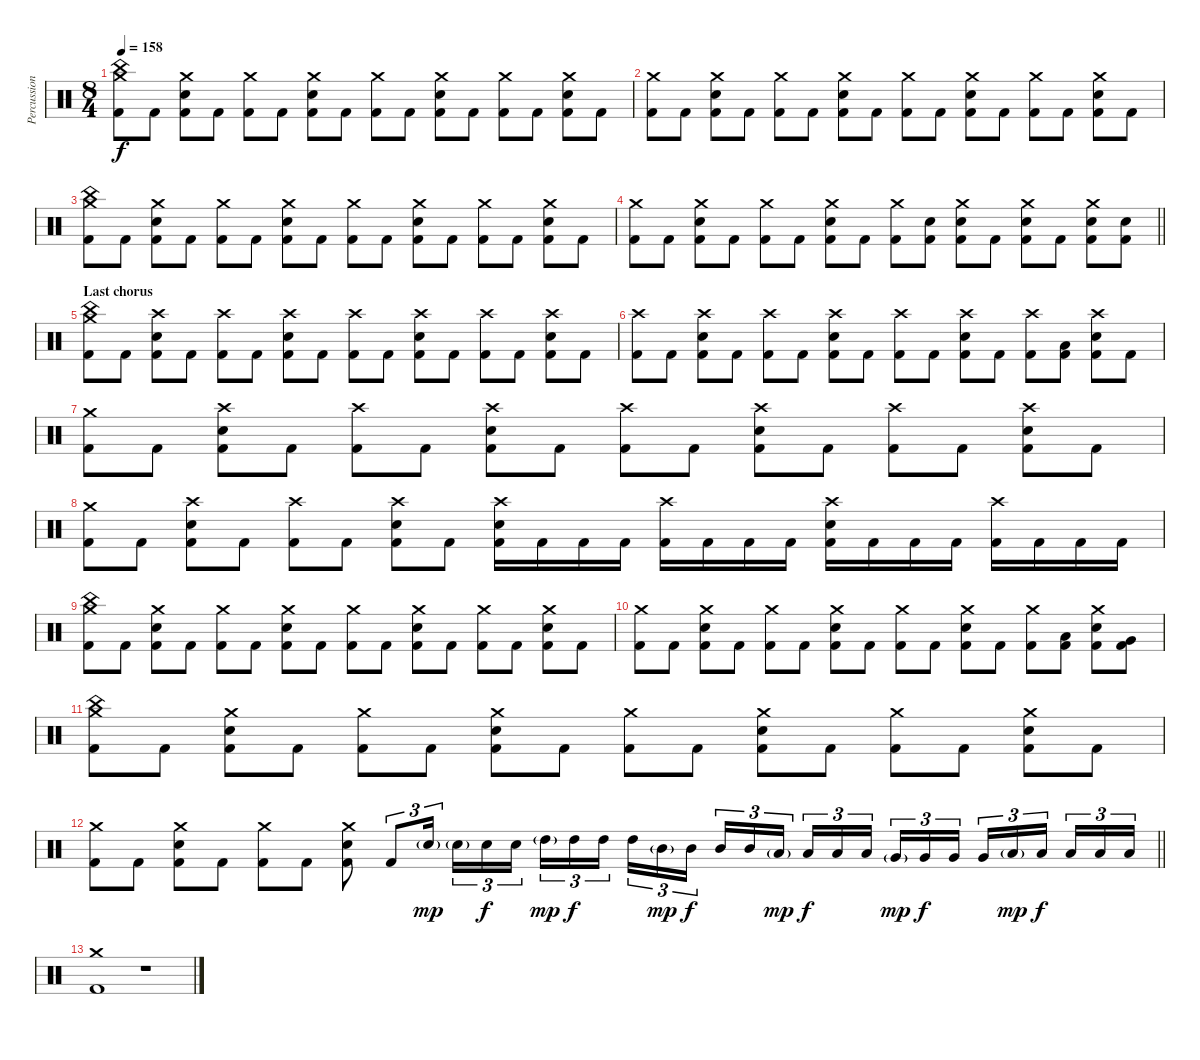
\track ("Percussion" "Percussion") {instrument percussion}
\staff {score}
\articulation defaults
\ts (8 4)
\tempo 158
\clef neutral
\ks c
("Crash medium (hit)" "China (hit)" "Kick (hit) 2").8{dy f} "Kick (hit) 2".8 ("Crash medium (hit)" "Electric Snare (hit)" "Kick (hit) 2").8 "Kick (hit) 2".8 ("Crash medium (hit)" "Kick (hit) 2").8 "Kick (hit) 2".8 ("Crash medium (hit)" "Electric Snare (hit)" "Kick (hit) 2").8 "Kick (hit) 2".8 ("Crash medium (hit)" "Kick (hit) 2").8 "Kick (hit) 2".8 ("Crash medium (hit)" "Electric Snare (hit)" "Kick (hit) 2").8 "Kick (hit) 2".8 ("Crash medium (hit)" "Kick (hit) 2").8 "Kick (hit) 2".8 ("Crash medium (hit)" "Electric Snare (hit)" "Kick (hit) 2").8 "Kick (hit) 2".8 |
("Crash medium (hit)" "Kick (hit) 2").8 "Kick (hit) 2".8 ("Crash medium (hit)" "Electric Snare (hit)" "Kick (hit) 2").8 "Kick (hit) 2".8 ("Crash medium (hit)" "Kick (hit) 2").8 "Kick (hit) 2".8 ("Crash medium (hit)" "Electric Snare (hit)" "Kick (hit) 2").8 "Kick (hit) 2".8 ("Crash medium (hit)" "Kick (hit) 2").8 "Kick (hit) 2".8 ("Crash medium (hit)" "Electric Snare (hit)" "Kick (hit) 2").8 "Kick (hit) 2".8 ("Crash medium (hit)" "Kick (hit) 2").8 "Kick (hit) 2".8 ("Crash medium (hit)" "Electric Snare (hit)" "Kick (hit) 2").8 "Kick (hit) 2".8 |
("Crash medium (hit)" "China (hit)" "Kick (hit) 2").8 "Kick (hit) 2".8 ("Crash medium (hit)" "Electric Snare (hit)" "Kick (hit) 2").8 "Kick (hit) 2".8 ("Crash medium (hit)" "Kick (hit) 2").8 "Kick (hit) 2".8 ("Crash medium (hit)" "Electric Snare (hit)" "Kick (hit) 2").8 "Kick (hit) 2".8 ("Crash medium (hit)" "Kick (hit) 2").8 "Kick (hit) 2".8 ("Crash medium (hit)" "Electric Snare (hit)" "Kick (hit) 2").8 "Kick (hit) 2".8 ("Crash medium (hit)" "Kick (hit) 2").8 "Kick (hit) 2".8 ("Crash medium (hit)" "Electric Snare (hit)" "Kick (hit) 2").8 "Kick (hit) 2".8 |
\barLineRight lightlight
("Crash medium (hit)" "Kick (hit) 2").8 "Kick (hit) 2".8 ("Crash medium (hit)" "Electric Snare (hit)" "Kick (hit) 2").8 "Kick (hit) 2".8 ("Crash medium (hit)" "Kick (hit) 2").8 "Kick (hit) 2".8 ("Crash medium (hit)" "Electric Snare (hit)" "Kick (hit) 2").8 "Kick (hit) 2".8 ("Crash medium (hit)" "Kick (hit) 2").8 ("Electric Snare (hit)" "Kick (hit) 2").8 ("Crash medium (hit)" "Electric Snare (hit)" "Kick (hit) 2").8 "Kick (hit) 2".8 ("Crash medium (hit)" "Electric Snare (hit)" "Kick (hit) 2").8 "Kick (hit) 2".8 ("Crash medium (hit)" "Electric Snare (hit)" "Kick (hit) 2").8 ("Electric Snare (hit)" "Kick (hit) 2").8 |
\section ("" "Last chorus")
("Crash medium (hit)" "China (hit)" "Kick (hit) 2").8 "Kick (hit) 2".8 ("Crash high (hit)" "Electric Snare (hit)" "Kick (hit) 2").8 "Kick (hit) 2".8 ("Crash high (hit)" "Kick (hit) 2").8 "Kick (hit) 2".8 ("Crash high (hit)" "Electric Snare (hit)" "Kick (hit) 2").8 "Kick (hit) 2".8 ("Crash high (hit)" "Kick (hit) 2").8 "Kick (hit) 2".8 ("Crash high (hit)" "Electric Snare (hit)" "Kick (hit) 2").8 "Kick (hit) 2".8 ("Crash high (hit)" "Kick (hit) 2").8 "Kick (hit) 2".8 ("Crash high (hit)" "Electric Snare (hit)" "Kick (hit) 2").8 "Kick (hit) 2".8 |
("Crash high (hit)" "Kick (hit) 2").8 "Kick (hit) 2".8 ("Crash high (hit)" "Electric Snare (hit)" "Kick (hit) 2").8 "Kick (hit) 2".8 ("Crash high (hit)" "Kick (hit) 2").8 "Kick (hit) 2".8 ("Crash high (hit)" "Electric Snare (hit)" "Kick (hit) 2").8 "Kick (hit) 2".8 ("Crash high (hit)" "Kick (hit) 2").8 "Kick (hit) 2".8 ("Crash high (hit)" "Electric Snare (hit)" "Kick (hit) 2").8 "Kick (hit) 2".8 ("Crash high (hit)" "Kick (hit) 2").8 ("Low Tom (hit)" "Kick (hit) 2").8 ("Crash high (hit)" "Electric Snare (hit)" "Kick (hit) 2").8 "Kick (hit) 2".8 |
("Crash medium (hit)" "Kick (hit) 2").8 "Kick (hit) 2".8 ("Crash high (hit)" "Electric Snare (hit)" "Kick (hit) 2").8 "Kick (hit) 2".8 ("Crash high (hit)" "Kick (hit) 2").8 "Kick (hit) 2".8 ("Crash high (hit)" "Electric Snare (hit)" "Kick (hit) 2").8 "Kick (hit) 2".8 ("Crash high (hit)" "Kick (hit) 2").8 "Kick (hit) 2".8 ("Crash high (hit)" "Electric Snare (hit)" "Kick (hit) 2").8 "Kick (hit) 2".8 ("Crash high (hit)" "Kick (hit) 2").8 "Kick (hit) 2".8 ("Crash high (hit)" "Electric Snare (hit)" "Kick (hit) 2").8 "Kick (hit) 2".8 |
("Crash medium (hit)" "Kick (hit) 2").8 "Kick (hit) 2".8 ("Crash high (hit)" "Electric Snare (hit)" "Kick (hit) 2").8 "Kick (hit) 2".8 ("Crash high (hit)" "Kick (hit) 2").8 "Kick (hit) 2".8 ("Crash high (hit)" "Electric Snare (hit)" "Kick (hit) 2").8 "Kick (hit) 2".8 ("Crash high (hit)" "Electric Snare (hit)" "Kick (hit) 2").16 "Kick (hit) 2".16 "Kick (hit) 2".16 "Kick (hit) 2".16 ("Crash high (hit)" "Kick (hit) 2").16 "Kick (hit) 2".16 "Kick (hit) 2".16 "Kick (hit) 2".16 ("Crash high (hit)" "Electric Snare (hit)" "Kick (hit) 2").16 "Kick (hit) 2".16 "Kick (hit) 2".16 "Kick (hit) 2".16 ("Crash high (hit)" "Kick (hit) 2").16 "Kick (hit) 2".16 "Kick (hit) 2".16 "Kick (hit) 2".16 |
("Crash medium (hit)" "China (hit)" "Kick (hit) 2").8 "Kick (hit) 2".8 ("Crash medium (hit)" "Electric Snare (hit)" "Kick (hit) 2").8 "Kick (hit) 2".8 ("Crash medium (hit)" "Kick (hit) 2").8 "Kick (hit) 2".8 ("Crash medium (hit)" "Electric Snare (hit)" "Kick (hit) 2").8 "Kick (hit) 2".8 ("Crash medium (hit)" "Kick (hit) 2").8 "Kick (hit) 2".8 ("Crash medium (hit)" "Electric Snare (hit)" "Kick (hit) 2").8 "Kick (hit) 2".8 ("Crash medium (hit)" "Kick (hit) 2").8 "Kick (hit) 2".8 ("Crash medium (hit)" "Electric Snare (hit)" "Kick (hit) 2").8 "Kick (hit) 2".8 |
("Crash medium (hit)" "Kick (hit) 2").8 "Kick (hit) 2".8 ("Crash medium (hit)" "Electric Snare (hit)" "Kick (hit) 2").8 "Kick (hit) 2".8 ("Crash medium (hit)" "Kick (hit) 2").8 "Kick (hit) 2".8 ("Crash medium (hit)" "Electric Snare (hit)" "Kick (hit) 2").8 "Kick (hit) 2".8 ("Crash medium (hit)" "Kick (hit) 2").8 "Kick (hit) 2".8 ("Crash medium (hit)" "Electric Snare (hit)" "Kick (hit) 2").8 "Kick (hit) 2".8 ("Crash medium (hit)" "Kick (hit) 2").8 ("Low Tom (hit)" "Kick (hit) 2").8 ("Crash medium (hit)" "Electric Snare (hit)" "Kick (hit) 2").8 ("Very Low Tom (hit)" "Kick (hit) 2").8 |
("Crash medium (hit)" "China (hit)" "Kick (hit) 2").8 "Kick (hit) 2".8 ("Crash medium (hit)" "Electric Snare (hit)" "Kick (hit) 2").8 "Kick (hit) 2".8 ("Crash medium (hit)" "Kick (hit) 2").8 "Kick (hit) 2".8 ("Crash medium (hit)" "Electric Snare (hit)" "Kick (hit) 2").8 "Kick (hit) 2".8 ("Crash medium (hit)" "Kick (hit) 2").8 "Kick (hit) 2".8 ("Crash medium (hit)" "Electric Snare (hit)" "Kick (hit) 2").8 "Kick (hit) 2".8 ("Crash medium (hit)" "Kick (hit) 2").8 "Kick (hit) 2".8 ("Crash medium (hit)" "Electric Snare (hit)" "Kick (hit) 2").8 "Kick (hit) 2".8 |
\barLineRight lightlight
("Crash medium (hit)" "Kick (hit) 2").8 "Kick (hit) 2".8 ("Crash medium (hit)" "Electric Snare (hit)" "Kick (hit) 2").8 "Kick (hit) 2".8 ("Crash medium (hit)" "Kick (hit) 2").8 "Kick (hit) 2".8 ("Crash medium (hit)" "Electric Snare (hit)" "Kick (hit) 2").8 "Kick (hit) 2".8{tu (3 2)} "Electric Snare (hit)"{g}.16{tu (3 2) dy mp} "Electric Snare (hit)"{g}.16{tu (3 2)} "Electric Snare (hit)".16{tu (3 2) dy f} "Electric Snare (hit)".16{tu (3 2) beam splitsecondary} "High Tom (hit)"{g}.16{tu (3 2) dy mp} "High Tom (hit)".16{tu (3 2) dy f} "High Tom (hit)".16{tu (3 2)} "High Tom (hit)".16{tu (3 2)} "Mid Tom (hit)"{g}.16{tu (3 2) dy mp} "Mid Tom (hit)".16{tu (3 2) dy f beam splitsecondary} "Mid Tom (hit)".16{tu (3 2)} "Mid Tom (hit)".16{tu (3 2)} "Low Tom (hit)"{g}.16{tu (3 2) dy mp} "Low Tom (hit)".16{tu (3 2) dy f} "Low Tom (hit)".16{tu (3 2)} "Low Tom (hit)".16{tu (3 2) beam splitsecondary} "Very Low Tom (hit)"{g}.16{tu (3 2) dy mp} "Very Low Tom (hit)".16{tu (3 2) dy f} "Very Low Tom (hit)".16{tu (3 2)} "Very Low Tom (hit)".16{tu (3 2)} "Low Floor Tom (hit)"{g}.16{tu (3 2) dy mp} "Low Floor Tom (hit)".16{tu (3 2) dy f beam splitsecondary} "Low Floor Tom (hit)".16{tu (3 2)} "Low Floor Tom (hit)".16{tu (3 2)} "Low Floor Tom (hit)".16{tu (3 2)} |
("Crash medium (hit)" "Kick (hit) 2").1 r.1
